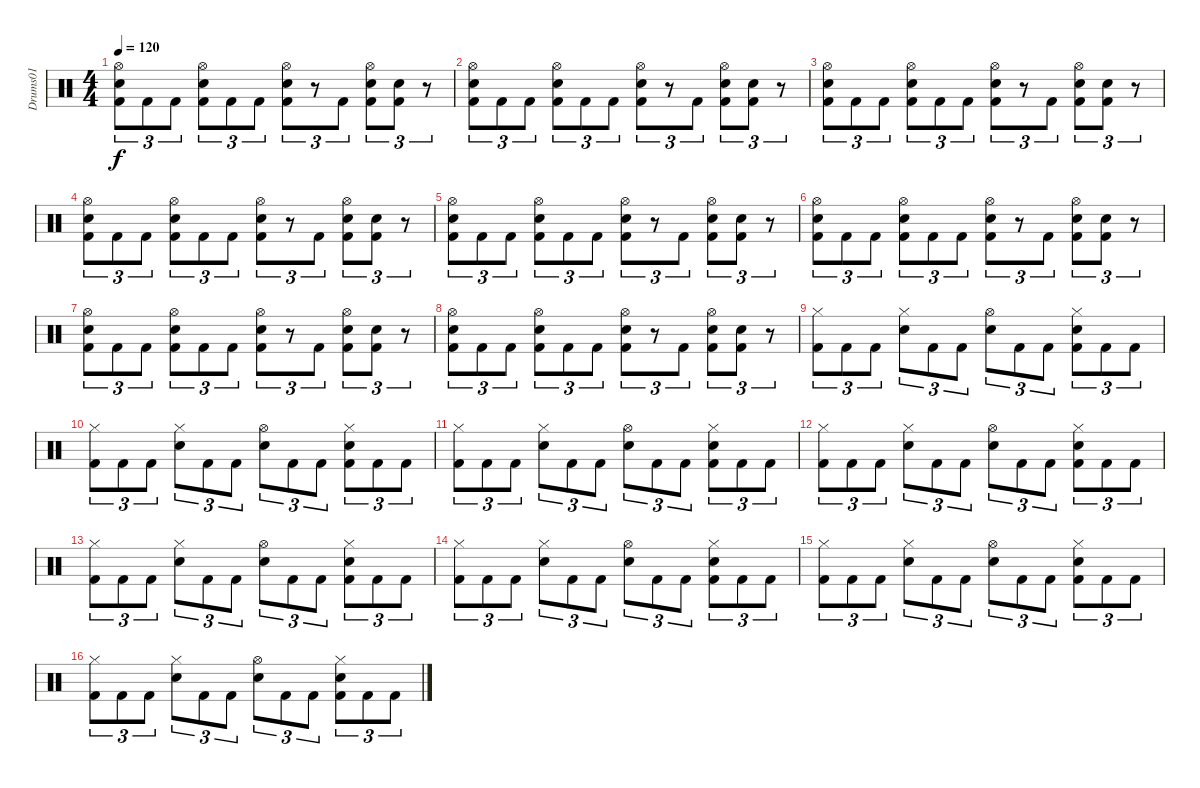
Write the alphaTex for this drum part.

\track ("Drums01" "Drums01") {instrument percussion}
\staff {score}
\articulation defaults
\ts (4 4)
\tempo 120
\clef neutral
\ks c
("Hi-Hat (open)" "Snare (hit) 2" "Kick (hit) 2").8{tu (3 2) dy f} "Kick (hit) 2".8{tu (3 2)} "Kick (hit) 2".8{tu (3 2)} ("Hi-Hat (open)" "Snare (hit) 2" "Kick (hit) 2").8{tu (3 2)} "Kick (hit) 2".8{tu (3 2)} "Kick (hit) 2".8{tu (3 2)} ("Hi-Hat (open)" "Snare (hit) 2" "Kick (hit) 2").8{tu (3 2)} r.8{tu (3 2)} "Kick (hit) 2".8{tu (3 2)} ("Hi-Hat (open)" "Snare (hit) 2" "Kick (hit) 2").8{tu (3 2)} ("Snare (hit) 2" "Kick (hit) 2").8{tu (3 2)} r.8{tu (3 2)} |
("Hi-Hat (open)" "Snare (hit) 2" "Kick (hit) 2").8{tu (3 2)} "Kick (hit) 2".8{tu (3 2)} "Kick (hit) 2".8{tu (3 2)} ("Hi-Hat (open)" "Snare (hit) 2" "Kick (hit) 2").8{tu (3 2)} "Kick (hit) 2".8{tu (3 2)} "Kick (hit) 2".8{tu (3 2)} ("Hi-Hat (open)" "Snare (hit) 2" "Kick (hit) 2").8{tu (3 2)} r.8{tu (3 2)} "Kick (hit) 2".8{tu (3 2)} ("Hi-Hat (open)" "Snare (hit) 2" "Kick (hit) 2").8{tu (3 2)} ("Snare (hit) 2" "Kick (hit) 2").8{tu (3 2)} r.8{tu (3 2)} |
("Hi-Hat (open)" "Snare (hit) 2" "Kick (hit) 2").8{tu (3 2)} "Kick (hit) 2".8{tu (3 2)} "Kick (hit) 2".8{tu (3 2)} ("Hi-Hat (open)" "Snare (hit) 2" "Kick (hit) 2").8{tu (3 2)} "Kick (hit) 2".8{tu (3 2)} "Kick (hit) 2".8{tu (3 2)} ("Hi-Hat (open)" "Snare (hit) 2" "Kick (hit) 2").8{tu (3 2)} r.8{tu (3 2)} "Kick (hit) 2".8{tu (3 2)} ("Hi-Hat (open)" "Snare (hit) 2" "Kick (hit) 2").8{tu (3 2)} ("Snare (hit) 2" "Kick (hit) 2").8{tu (3 2)} r.8{tu (3 2)} |
("Hi-Hat (open)" "Snare (hit) 2" "Kick (hit) 2").8{tu (3 2)} "Kick (hit) 2".8{tu (3 2)} "Kick (hit) 2".8{tu (3 2)} ("Hi-Hat (open)" "Snare (hit) 2" "Kick (hit) 2").8{tu (3 2)} "Kick (hit) 2".8{tu (3 2)} "Kick (hit) 2".8{tu (3 2)} ("Hi-Hat (open)" "Snare (hit) 2" "Kick (hit) 2").8{tu (3 2)} r.8{tu (3 2)} "Kick (hit) 2".8{tu (3 2)} ("Hi-Hat (open)" "Snare (hit) 2" "Kick (hit) 2").8{tu (3 2)} ("Snare (hit) 2" "Kick (hit) 2").8{tu (3 2)} r.8{tu (3 2)} |
("Hi-Hat (open)" "Snare (hit) 2" "Kick (hit) 2").8{tu (3 2)} "Kick (hit) 2".8{tu (3 2)} "Kick (hit) 2".8{tu (3 2)} ("Hi-Hat (open)" "Snare (hit) 2" "Kick (hit) 2").8{tu (3 2)} "Kick (hit) 2".8{tu (3 2)} "Kick (hit) 2".8{tu (3 2)} ("Hi-Hat (open)" "Snare (hit) 2" "Kick (hit) 2").8{tu (3 2)} r.8{tu (3 2)} "Kick (hit) 2".8{tu (3 2)} ("Hi-Hat (open)" "Snare (hit) 2" "Kick (hit) 2").8{tu (3 2)} ("Snare (hit) 2" "Kick (hit) 2").8{tu (3 2)} r.8{tu (3 2)} |
("Hi-Hat (open)" "Snare (hit) 2" "Kick (hit) 2").8{tu (3 2)} "Kick (hit) 2".8{tu (3 2)} "Kick (hit) 2".8{tu (3 2)} ("Hi-Hat (open)" "Snare (hit) 2" "Kick (hit) 2").8{tu (3 2)} "Kick (hit) 2".8{tu (3 2)} "Kick (hit) 2".8{tu (3 2)} ("Hi-Hat (open)" "Snare (hit) 2" "Kick (hit) 2").8{tu (3 2)} r.8{tu (3 2)} "Kick (hit) 2".8{tu (3 2)} ("Hi-Hat (open)" "Snare (hit) 2" "Kick (hit) 2").8{tu (3 2)} ("Snare (hit) 2" "Kick (hit) 2").8{tu (3 2)} r.8{tu (3 2)} |
("Hi-Hat (open)" "Snare (hit) 2" "Kick (hit) 2").8{tu (3 2)} "Kick (hit) 2".8{tu (3 2)} "Kick (hit) 2".8{tu (3 2)} ("Hi-Hat (open)" "Snare (hit) 2" "Kick (hit) 2").8{tu (3 2)} "Kick (hit) 2".8{tu (3 2)} "Kick (hit) 2".8{tu (3 2)} ("Hi-Hat (open)" "Snare (hit) 2" "Kick (hit) 2").8{tu (3 2)} r.8{tu (3 2)} "Kick (hit) 2".8{tu (3 2)} ("Hi-Hat (open)" "Snare (hit) 2" "Kick (hit) 2").8{tu (3 2)} ("Snare (hit) 2" "Kick (hit) 2").8{tu (3 2)} r.8{tu (3 2)} |
("Hi-Hat (open)" "Snare (hit) 2" "Kick (hit) 2").8{tu (3 2)} "Kick (hit) 2".8{tu (3 2)} "Kick (hit) 2".8{tu (3 2)} ("Hi-Hat (open)" "Snare (hit) 2" "Kick (hit) 2").8{tu (3 2)} "Kick (hit) 2".8{tu (3 2)} "Kick (hit) 2".8{tu (3 2)} ("Hi-Hat (open)" "Snare (hit) 2" "Kick (hit) 2").8{tu (3 2)} r.8{tu (3 2)} "Kick (hit) 2".8{tu (3 2)} ("Hi-Hat (open)" "Snare (hit) 2" "Kick (hit) 2").8{tu (3 2)} ("Snare (hit) 2" "Kick (hit) 2").8{tu (3 2)} r.8{tu (3 2)} |
("Hi-Hat (closed)" "Kick (hit) 2").8{tu (3 2)} "Kick (hit) 2".8{tu (3 2)} "Kick (hit) 2".8{tu (3 2)} ("Hi-Hat (closed)" "Snare (hit) 2").8{tu (3 2)} "Kick (hit) 2".8{tu (3 2)} "Kick (hit) 2".8{tu (3 2)} ("Hi-Hat (open)" "Snare (hit) 2").8{tu (3 2)} "Kick (hit) 2".8{tu (3 2)} "Kick (hit) 2".8{tu (3 2)} ("Hi-Hat (closed)" "Snare (hit) 2" "Kick (hit) 2").8{tu (3 2)} "Kick (hit) 2".8{tu (3 2)} "Kick (hit) 2".8{tu (3 2)} |
("Hi-Hat (closed)" "Kick (hit) 2").8{tu (3 2)} "Kick (hit) 2".8{tu (3 2)} "Kick (hit) 2".8{tu (3 2)} ("Hi-Hat (closed)" "Snare (hit) 2").8{tu (3 2)} "Kick (hit) 2".8{tu (3 2)} "Kick (hit) 2".8{tu (3 2)} ("Hi-Hat (open)" "Snare (hit) 2").8{tu (3 2)} "Kick (hit) 2".8{tu (3 2)} "Kick (hit) 2".8{tu (3 2)} ("Hi-Hat (closed)" "Snare (hit) 2" "Kick (hit) 2").8{tu (3 2)} "Kick (hit) 2".8{tu (3 2)} "Kick (hit) 2".8{tu (3 2)} |
("Hi-Hat (closed)" "Kick (hit) 2").8{tu (3 2)} "Kick (hit) 2".8{tu (3 2)} "Kick (hit) 2".8{tu (3 2)} ("Hi-Hat (closed)" "Snare (hit) 2").8{tu (3 2)} "Kick (hit) 2".8{tu (3 2)} "Kick (hit) 2".8{tu (3 2)} ("Hi-Hat (open)" "Snare (hit) 2").8{tu (3 2)} "Kick (hit) 2".8{tu (3 2)} "Kick (hit) 2".8{tu (3 2)} ("Hi-Hat (closed)" "Snare (hit) 2" "Kick (hit) 2").8{tu (3 2)} "Kick (hit) 2".8{tu (3 2)} "Kick (hit) 2".8{tu (3 2)} |
("Hi-Hat (closed)" "Kick (hit) 2").8{tu (3 2)} "Kick (hit) 2".8{tu (3 2)} "Kick (hit) 2".8{tu (3 2)} ("Hi-Hat (closed)" "Snare (hit) 2").8{tu (3 2)} "Kick (hit) 2".8{tu (3 2)} "Kick (hit) 2".8{tu (3 2)} ("Hi-Hat (open)" "Snare (hit) 2").8{tu (3 2)} "Kick (hit) 2".8{tu (3 2)} "Kick (hit) 2".8{tu (3 2)} ("Hi-Hat (closed)" "Snare (hit) 2" "Kick (hit) 2").8{tu (3 2)} "Kick (hit) 2".8{tu (3 2)} "Kick (hit) 2".8{tu (3 2)} |
("Hi-Hat (closed)" "Kick (hit) 2").8{tu (3 2)} "Kick (hit) 2".8{tu (3 2)} "Kick (hit) 2".8{tu (3 2)} ("Hi-Hat (closed)" "Snare (hit) 2").8{tu (3 2)} "Kick (hit) 2".8{tu (3 2)} "Kick (hit) 2".8{tu (3 2)} ("Hi-Hat (open)" "Snare (hit) 2").8{tu (3 2)} "Kick (hit) 2".8{tu (3 2)} "Kick (hit) 2".8{tu (3 2)} ("Hi-Hat (closed)" "Snare (hit) 2" "Kick (hit) 2").8{tu (3 2)} "Kick (hit) 2".8{tu (3 2)} "Kick (hit) 2".8{tu (3 2)} |
("Hi-Hat (closed)" "Kick (hit) 2").8{tu (3 2)} "Kick (hit) 2".8{tu (3 2)} "Kick (hit) 2".8{tu (3 2)} ("Hi-Hat (closed)" "Snare (hit) 2").8{tu (3 2)} "Kick (hit) 2".8{tu (3 2)} "Kick (hit) 2".8{tu (3 2)} ("Hi-Hat (open)" "Snare (hit) 2").8{tu (3 2)} "Kick (hit) 2".8{tu (3 2)} "Kick (hit) 2".8{tu (3 2)} ("Hi-Hat (closed)" "Snare (hit) 2" "Kick (hit) 2").8{tu (3 2)} "Kick (hit) 2".8{tu (3 2)} "Kick (hit) 2".8{tu (3 2)} |
("Hi-Hat (closed)" "Kick (hit) 2").8{tu (3 2)} "Kick (hit) 2".8{tu (3 2)} "Kick (hit) 2".8{tu (3 2)} ("Hi-Hat (closed)" "Snare (hit) 2").8{tu (3 2)} "Kick (hit) 2".8{tu (3 2)} "Kick (hit) 2".8{tu (3 2)} ("Hi-Hat (open)" "Snare (hit) 2").8{tu (3 2)} "Kick (hit) 2".8{tu (3 2)} "Kick (hit) 2".8{tu (3 2)} ("Hi-Hat (closed)" "Snare (hit) 2" "Kick (hit) 2").8{tu (3 2)} "Kick (hit) 2".8{tu (3 2)} "Kick (hit) 2".8{tu (3 2)} |
("Hi-Hat (closed)" "Kick (hit) 2").8{tu (3 2)} "Kick (hit) 2".8{tu (3 2)} "Kick (hit) 2".8{tu (3 2)} ("Hi-Hat (closed)" "Snare (hit) 2").8{tu (3 2)} "Kick (hit) 2".8{tu (3 2)} "Kick (hit) 2".8{tu (3 2)} ("Hi-Hat (open)" "Snare (hit) 2").8{tu (3 2)} "Kick (hit) 2".8{tu (3 2)} "Kick (hit) 2".8{tu (3 2)} ("Hi-Hat (closed)" "Snare (hit) 2" "Kick (hit) 2").8{tu (3 2)} "Kick (hit) 2".8{tu (3 2)} "Kick (hit) 2".8{tu (3 2)}
